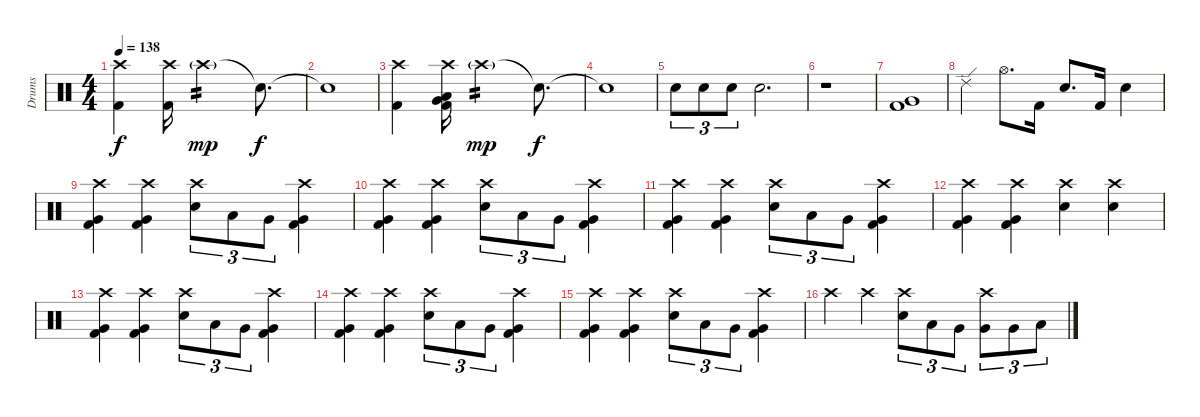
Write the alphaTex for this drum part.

\track ("Drums" "Drums") {instrument percussion}
\staff {score}
\articulation defaults
\ts (4 4)
\tempo 138
\clef neutral
\ks c
("Crash high (hit)" "Kick (hit) 2").4{dy f} ("Crash high (hit)" "Kick (hit) 2").16 "Crash high (hit)"{g}.2{tp 2 dy mp} "Snare (hit)"{t}.8{d dy f} |
"Snare (hit)"{t}.1 |
("Crash high (hit)" "Kick (hit) 2").4 ("Crash high (hit)" "Very Low Tom (hit)" "Low Floor Tom (hit)" "Kick (hit) 2").16 "Crash high (hit)"{g}.2{tp 2 dy mp} "Snare (hit)"{t}.8{d dy f} |
"Snare (hit)"{t}.1 |
"Snare (hit) 2".8{tu (3 2)} "Snare (hit) 2".8{tu (3 2)} "Snare (hit) 2".8{tu (3 2)} "Snare (hit) 2".2{d} |
r.1 |
("Very Low Tom (hit)" "Kick (hit) 2").1 |
"Ride (edge) 2".4 "Hi-Hat (open)".8{d} "Kick (hit) 2".16 "Snare (hit) 2".8{d} "Kick (hit) 2".16 "Snare (hit) 2".4 |
("Crash high (hit)" "Very Low Tom (hit)" "Kick (hit) 2").4 ("Crash high (hit)" "Very Low Tom (hit)" "Kick (hit) 2").4 ("Crash high (hit)" "Snare (hit) 2").8{tu (3 2)} "Low Tom (hit)".8{tu (3 2)} "Very Low Tom (hit)".8{tu (3 2)} ("Crash high (hit)" "Very Low Tom (hit)" "Kick (hit) 2").4 |
("Crash high (hit)" "Very Low Tom (hit)" "Kick (hit) 2").4 ("Crash high (hit)" "Very Low Tom (hit)" "Kick (hit) 2").4 ("Crash high (hit)" "Snare (hit) 2").8{tu (3 2)} "Low Tom (hit)".8{tu (3 2)} "Very Low Tom (hit)".8{tu (3 2)} ("Crash high (hit)" "Very Low Tom (hit)" "Kick (hit) 2").4 |
("Crash high (hit)" "Very Low Tom (hit)" "Kick (hit) 2").4 ("Crash high (hit)" "Very Low Tom (hit)" "Kick (hit) 2").4 ("Crash high (hit)" "Snare (hit) 2").8{tu (3 2)} "Low Tom (hit)".8{tu (3 2)} "Very Low Tom (hit)".8{tu (3 2)} ("Crash high (hit)" "Very Low Tom (hit)" "Kick (hit) 2").4 |
("Crash high (hit)" "Very Low Tom (hit)" "Kick (hit) 2").4 ("Crash high (hit)" "Very Low Tom (hit)" "Kick (hit) 2").4 ("Crash high (hit)" "Snare (hit) 2").4 ("Crash high (hit)" "Snare (hit) 2").4 |
("Crash high (hit)" "Very Low Tom (hit)" "Kick (hit) 2").4 ("Crash high (hit)" "Very Low Tom (hit)" "Kick (hit) 2").4 ("Crash high (hit)" "Snare (hit) 2").8{tu (3 2)} "Low Tom (hit)".8{tu (3 2)} "Very Low Tom (hit)".8{tu (3 2)} ("Crash high (hit)" "Very Low Tom (hit)" "Kick (hit) 2").4 |
("Crash high (hit)" "Very Low Tom (hit)" "Kick (hit) 2").4 ("Crash high (hit)" "Very Low Tom (hit)" "Kick (hit) 2").4 ("Crash high (hit)" "Snare (hit) 2").8{tu (3 2)} "Low Tom (hit)".8{tu (3 2)} "Very Low Tom (hit)".8{tu (3 2)} ("Crash high (hit)" "Very Low Tom (hit)" "Kick (hit) 2").4 |
("Crash high (hit)" "Very Low Tom (hit)" "Kick (hit) 2").4 ("Crash high (hit)" "Very Low Tom (hit)" "Kick (hit) 2").4 ("Crash high (hit)" "Snare (hit) 2").8{tu (3 2)} "Low Tom (hit)".8{tu (3 2)} "Very Low Tom (hit)".8{tu (3 2)} ("Crash high (hit)" "Very Low Tom (hit)" "Kick (hit) 2").4 |
"Crash high (hit)".4 "Crash high (hit)".4 ("Crash high (hit)" "Snare (hit) 2").8{tu (3 2)} "Low Tom (hit)".8{tu (3 2)} "Very Low Tom (hit)".8{tu (3 2)} ("Crash high (hit)" "Very Low Tom (hit)").8{tu (3 2)} "Very Low Tom (hit)".8{tu (3 2)} "Low Floor Tom (hit)".8{tu (3 2)}
